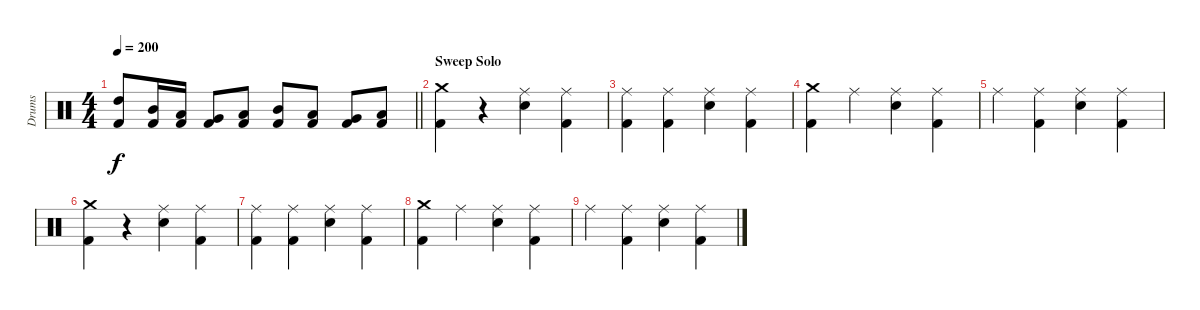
\track ("Drums" "Drums") {instrument percussion}
\staff {score}
\articulation defaults
\ts (4 4)
\tempo 200
\clef neutral
\barLineRight lightlight
\ks c
("High Tom (hit)" "Kick (hit) 2").8{dy f} ("Mid Tom (hit)" "Kick (hit) 2").16 ("Low Tom (hit)" "Kick (hit) 2").16 ("Very Low Tom (hit)" "Kick (hit) 2").8 ("Low Floor Tom (hit)" "Kick (hit) 2").8 ("Mid Tom (hit)" "Kick (hit) 2").8 ("Low Tom (hit)" "Kick (hit) 2").8 ("Very Low Tom (hit)" "Kick (hit) 2").8 ("Low Floor Tom (hit)" "Kick (hit) 2").8 |
\section ("" "Sweep Solo")
("Crash medium (hit)" "Kick (hit) 2").4 r.4 ("Ride (middle)" "Electric Snare (hit)").4 ("Ride (middle)" "Kick (hit) 2").4 |
("Ride (middle)" "Kick (hit) 2").4 ("Ride (middle)" "Kick (hit) 2").4 ("Ride (middle)" "Electric Snare (hit)").4 ("Ride (middle)" "Kick (hit) 2").4 |
("Crash medium (hit)" "Kick (hit) 2").4 "Ride (middle)".4 ("Ride (middle)" "Electric Snare (hit)").4 ("Ride (middle)" "Kick (hit) 2").4 |
"Ride (middle)".4 ("Ride (middle)" "Kick (hit) 2").4 ("Ride (middle)" "Electric Snare (hit)").4 ("Ride (middle)" "Kick (hit) 2").4 |
("Crash medium (hit)" "Kick (hit) 2").4 r.4 ("Ride (middle)" "Electric Snare (hit)").4 ("Ride (middle)" "Kick (hit) 2").4 |
("Ride (middle)" "Kick (hit) 2").4 ("Ride (middle)" "Kick (hit) 2").4 ("Ride (middle)" "Electric Snare (hit)").4 ("Ride (middle)" "Kick (hit) 2").4 |
("Crash medium (hit)" "Kick (hit) 2").4 "Ride (middle)".4 ("Ride (middle)" "Electric Snare (hit)").4 ("Ride (middle)" "Kick (hit) 2").4 |
"Ride (middle)".4 ("Ride (middle)" "Kick (hit) 2").4 ("Ride (middle)" "Electric Snare (hit)").4 ("Ride (middle)" "Kick (hit) 2").4
